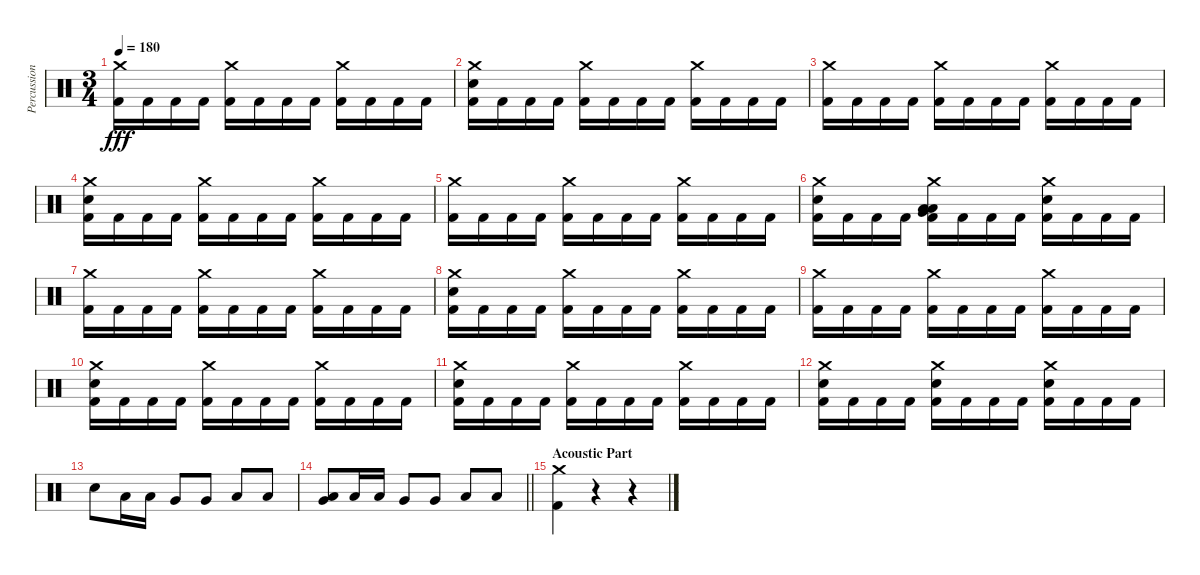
\track ("Percussion" "Percussion") {instrument percussion}
\staff {score}
\articulation defaults
\ts (3 4)
\tempo 180
\clef neutral
\ks c
("Crash medium (hit)" "Kick (hit) 2").16{dy fff} "Kick (hit) 2".16 "Kick (hit) 2".16 "Kick (hit) 2".16 ("Crash medium (hit)" "Kick (hit) 2").16 "Kick (hit) 2".16 "Kick (hit) 2".16 "Kick (hit) 2".16 ("Crash medium (hit)" "Kick (hit) 2").16 "Kick (hit) 2".16 "Kick (hit) 2".16 "Kick (hit) 2".16 |
("Crash medium (hit)" "Electric Snare (hit)" "Kick (hit) 2").16 "Kick (hit) 2".16 "Kick (hit) 2".16 "Kick (hit) 2".16 ("Crash medium (hit)" "Kick (hit) 2").16 "Kick (hit) 2".16 "Kick (hit) 2".16 "Kick (hit) 2".16 ("Crash medium (hit)" "Kick (hit) 2").16 "Kick (hit) 2".16 "Kick (hit) 2".16 "Kick (hit) 2".16 |
("Crash medium (hit)" "Kick (hit) 2").16 "Kick (hit) 2".16 "Kick (hit) 2".16 "Kick (hit) 2".16 ("Crash medium (hit)" "Kick (hit) 2").16 "Kick (hit) 2".16 "Kick (hit) 2".16 "Kick (hit) 2".16 ("Crash medium (hit)" "Kick (hit) 2").16 "Kick (hit) 2".16 "Kick (hit) 2".16 "Kick (hit) 2".16 |
("Crash medium (hit)" "Electric Snare (hit)" "Kick (hit) 2").16 "Kick (hit) 2".16 "Kick (hit) 2".16 "Kick (hit) 2".16 ("Crash medium (hit)" "Kick (hit) 2").16 "Kick (hit) 2".16 "Kick (hit) 2".16 "Kick (hit) 2".16 ("Crash medium (hit)" "Kick (hit) 2").16 "Kick (hit) 2".16 "Kick (hit) 2".16 "Kick (hit) 2".16 |
("Crash medium (hit)" "Kick (hit) 2").16 "Kick (hit) 2".16 "Kick (hit) 2".16 "Kick (hit) 2".16 ("Crash medium (hit)" "Kick (hit) 2").16 "Kick (hit) 2".16 "Kick (hit) 2".16 "Kick (hit) 2".16 ("Crash medium (hit)" "Kick (hit) 2").16 "Kick (hit) 2".16 "Kick (hit) 2".16 "Kick (hit) 2".16 |
("Crash medium (hit)" "Electric Snare (hit)" "Kick (hit) 2").16 "Kick (hit) 2".16 "Kick (hit) 2".16 "Kick (hit) 2".16 ("Crash medium (hit)" "Low Tom (hit)" "Very Low Tom (hit)" "Low Floor Tom (hit)" "Kick (hit) 2").16 "Kick (hit) 2".16 "Kick (hit) 2".16 "Kick (hit) 2".16 ("Crash medium (hit)" "Electric Snare (hit)" "Kick (hit) 2").16 "Kick (hit) 2".16 "Kick (hit) 2".16 "Kick (hit) 2".16 |
("Crash medium (hit)" "Kick (hit) 2").16 "Kick (hit) 2".16 "Kick (hit) 2".16 "Kick (hit) 2".16 ("Crash medium (hit)" "Kick (hit) 2").16 "Kick (hit) 2".16 "Kick (hit) 2".16 "Kick (hit) 2".16 ("Crash medium (hit)" "Kick (hit) 2").16 "Kick (hit) 2".16 "Kick (hit) 2".16 "Kick (hit) 2".16 |
("Crash medium (hit)" "Electric Snare (hit)" "Kick (hit) 2").16 "Kick (hit) 2".16 "Kick (hit) 2".16 "Kick (hit) 2".16 ("Crash medium (hit)" "Kick (hit) 2").16 "Kick (hit) 2".16 "Kick (hit) 2".16 "Kick (hit) 2".16 ("Crash medium (hit)" "Kick (hit) 2").16 "Kick (hit) 2".16 "Kick (hit) 2".16 "Kick (hit) 2".16 |
("Crash medium (hit)" "Kick (hit) 2").16 "Kick (hit) 2".16 "Kick (hit) 2".16 "Kick (hit) 2".16 ("Crash medium (hit)" "Kick (hit) 2").16 "Kick (hit) 2".16 "Kick (hit) 2".16 "Kick (hit) 2".16 ("Crash medium (hit)" "Kick (hit) 2").16 "Kick (hit) 2".16 "Kick (hit) 2".16 "Kick (hit) 2".16 |
("Crash medium (hit)" "Electric Snare (hit)" "Kick (hit) 2").16 "Kick (hit) 2".16 "Kick (hit) 2".16 "Kick (hit) 2".16 ("Crash medium (hit)" "Kick (hit) 2").16 "Kick (hit) 2".16 "Kick (hit) 2".16 "Kick (hit) 2".16 ("Crash medium (hit)" "Kick (hit) 2").16 "Kick (hit) 2".16 "Kick (hit) 2".16 "Kick (hit) 2".16 |
("Crash medium (hit)" "Electric Snare (hit)" "Kick (hit) 2").16 "Kick (hit) 2".16 "Kick (hit) 2".16 "Kick (hit) 2".16 ("Crash medium (hit)" "Kick (hit) 2").16 "Kick (hit) 2".16 "Kick (hit) 2".16 "Kick (hit) 2".16 ("Crash medium (hit)" "Kick (hit) 2").16 "Kick (hit) 2".16 "Kick (hit) 2".16 "Kick (hit) 2".16 |
("Crash medium (hit)" "Electric Snare (hit)" "Kick (hit) 2").16 "Kick (hit) 2".16 "Kick (hit) 2".16 "Kick (hit) 2".16 ("Crash medium (hit)" "Electric Snare (hit)" "Kick (hit) 2").16 "Kick (hit) 2".16 "Kick (hit) 2".16 "Kick (hit) 2".16 ("Crash medium (hit)" "Electric Snare (hit)" "Kick (hit) 2").16 "Kick (hit) 2".16 "Kick (hit) 2".16 "Kick (hit) 2".16 |
"Electric Snare (hit)".8 "Low Tom (hit)".16 "Low Tom (hit)".16 "Very Low Tom (hit)".8 "Very Low Tom (hit)".8 "Low Floor Tom (hit)".8 "Low Floor Tom (hit)".8 |
\barLineRight lightlight
("Very Low Tom (hit)" "Low Floor Tom (hit)").8 "Low Tom (hit)".16 "Low Tom (hit)".16 "Very Low Tom (hit)".8 "Very Low Tom (hit)".8 "Low Floor Tom (hit)".8 "Low Floor Tom (hit)".8 |
\section ("" "Acoustic Part")
("Crash medium (hit)" "Kick (hit) 2").4 r.4 r.4
